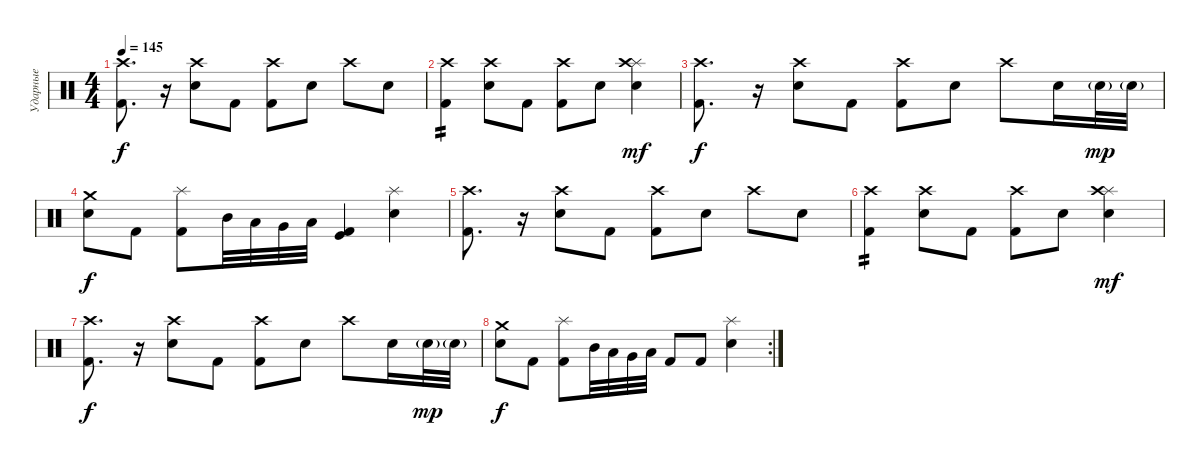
\track ("Ударные" "Ударные") {instrument percussion}
\staff {score}
\articulation defaults
\ts (4 4)
\tempo 145
\clef neutral
\ks c
("Kick (hit) 2" "Crash high (hit)").8{d dy f} r.16 ("Snare (hit) 2" "Crash high (hit)").8 "Kick (hit) 2".8 ("Kick (hit) 2" "Crash high (hit)").8 "Snare (hit) 2".8 "Crash high (hit)".8 "Snare (hit) 2".8 |
("Kick (hit) 2" "Crash high (hit)").4{tp 2} ("Snare (hit) 2" "Crash high (hit)").8 "Kick (hit) 2".8 ("Kick (hit) 2" "Crash high (hit)").8 "Snare (hit) 2".8 ("Snare (hit) 2" "Splash (hit)" "Crash high (hit)").4{dy mf} |
("Kick (hit) 2" "Crash high (hit)").8{d dy f} r.16 ("Snare (hit) 2" "Crash high (hit)").8 "Kick (hit) 2".8 ("Kick (hit) 2" "Crash high (hit)").8 "Snare (hit) 2".8 "Crash high (hit)".8 "Snare (hit) 2".16 "Snare (hit) 2"{g}.32{dy mp} "Snare (hit) 2"{g}.32 |
("Snare (hit) 2" "Crash medium (hit)").8{dy f} "Kick (hit) 2".8 ("Kick (hit) 2" "Splash (hit)").8 "Mid Tom (hit)".32 "Low Tom (hit)".32 "Very Low Tom (hit)".32 "Low Floor Tom (hit)".32 ("Kick (hit)" "Kick (hit) 2").4 ("Snare (hit) 2" "Splash (hit)").4 |
("Kick (hit) 2" "Crash high (hit)").8{d} r.16 ("Snare (hit) 2" "Crash high (hit)").8 "Kick (hit) 2".8 ("Kick (hit) 2" "Crash high (hit)").8 "Snare (hit) 2".8 "Crash high (hit)".8 "Snare (hit) 2".8 |
("Kick (hit) 2" "Crash high (hit)").4{tp 2} ("Snare (hit) 2" "Crash high (hit)").8 "Kick (hit) 2".8 ("Kick (hit) 2" "Crash high (hit)").8 "Snare (hit) 2".8 ("Snare (hit) 2" "Splash (hit)" "Crash high (hit)").4{dy mf} |
("Kick (hit) 2" "Crash high (hit)").8{d dy f} r.16 ("Snare (hit) 2" "Crash high (hit)").8 "Kick (hit) 2".8 ("Kick (hit) 2" "Crash high (hit)").8 "Snare (hit) 2".8 "Crash high (hit)".8 "Snare (hit) 2".16 "Snare (hit) 2"{g}.32{dy mp} "Snare (hit) 2"{g}.32 |
\rc 2
("Snare (hit) 2" "Crash medium (hit)").8{dy f} "Kick (hit) 2".8 ("Kick (hit) 2" "Splash (hit)").8 "Mid Tom (hit)".32 "Low Tom (hit)".32 "Very Low Tom (hit)".32 "Low Floor Tom (hit)".32 "Kick (hit) 2".8 "Kick (hit) 2".8 ("Snare (hit) 2" "Splash (hit)").4
